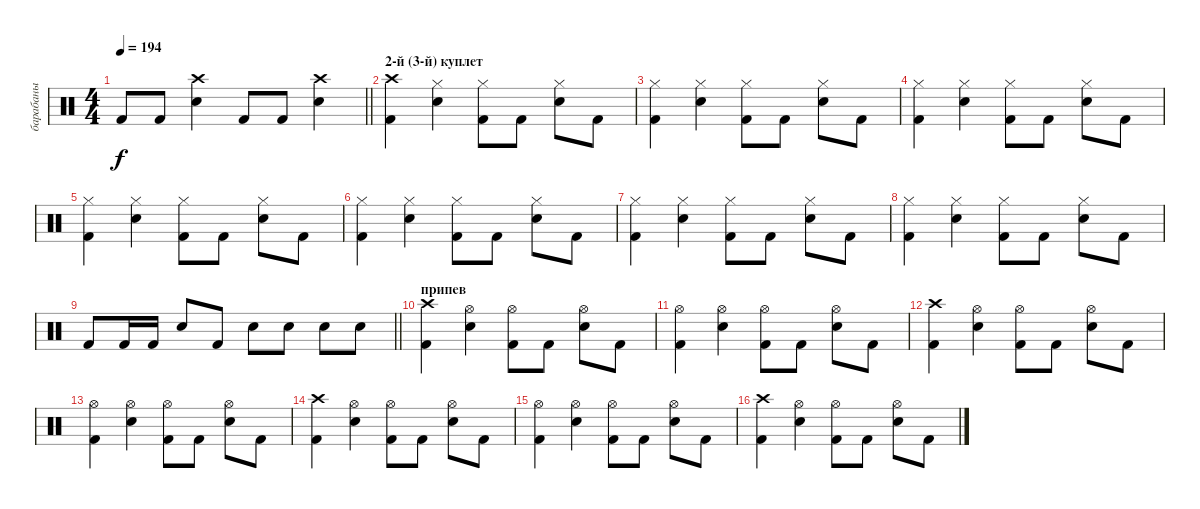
\track ("барабаны" "барабаны") {instrument percussion}
\staff {score}
\articulation defaults
\ts (4 4)
\tempo 194
\clef neutral
\barLineRight lightlight
\ks c "Kick (hit) 2".8{dy f} "Kick (hit) 2".8
("Crash high (hit)" "Snare (hit) 2").4 "Kick (hit) 2".8 "Kick (hit) 2".8 ("Crash high (hit)" "Snare (hit) 2").4 |
\section ("" "2-й (3-й) куплет")
("Crash high (hit)" "Kick (hit) 2").4 ("Hi-Hat (closed)" "Snare (hit) 2").4 ("Hi-Hat (closed)" "Kick (hit) 2").8 "Kick (hit) 2".8 ("Hi-Hat (closed)" "Snare (hit) 2").8 "Kick (hit) 2".8 |
("Hi-Hat (closed)" "Kick (hit) 2").4 ("Hi-Hat (closed)" "Snare (hit) 2").4 ("Hi-Hat (closed)" "Kick (hit) 2").8 "Kick (hit) 2".8 ("Hi-Hat (closed)" "Snare (hit) 2").8 "Kick (hit) 2".8 |
("Hi-Hat (closed)" "Kick (hit) 2").4 ("Hi-Hat (closed)" "Snare (hit) 2").4 ("Hi-Hat (closed)" "Kick (hit) 2").8 "Kick (hit) 2".8 ("Hi-Hat (closed)" "Snare (hit) 2").8 "Kick (hit) 2".8 |
("Hi-Hat (closed)" "Kick (hit) 2").4 ("Hi-Hat (closed)" "Snare (hit) 2").4 ("Hi-Hat (closed)" "Kick (hit) 2").8 "Kick (hit) 2".8 ("Hi-Hat (closed)" "Snare (hit) 2").8 "Kick (hit) 2".8 |
("Hi-Hat (closed)" "Kick (hit) 2").4 ("Hi-Hat (closed)" "Snare (hit) 2").4 ("Hi-Hat (closed)" "Kick (hit) 2").8 "Kick (hit) 2".8 ("Hi-Hat (closed)" "Snare (hit) 2").8 "Kick (hit) 2".8 |
("Hi-Hat (closed)" "Kick (hit) 2").4 ("Hi-Hat (closed)" "Snare (hit) 2").4 ("Hi-Hat (closed)" "Kick (hit) 2").8 "Kick (hit) 2".8 ("Hi-Hat (closed)" "Snare (hit) 2").8 "Kick (hit) 2".8 |
("Hi-Hat (closed)" "Kick (hit) 2").4 ("Hi-Hat (closed)" "Snare (hit) 2").4 ("Hi-Hat (closed)" "Kick (hit) 2").8 "Kick (hit) 2".8 ("Hi-Hat (closed)" "Snare (hit) 2").8 "Kick (hit) 2".8 |
\barLineRight lightlight "Kick (hit) 2".8 "Kick (hit) 2".16 "Kick (hit) 2".16 "Snare (hit) 2".8 "Kick (hit) 2".8 "Snare (hit) 2".8 "Snare (hit) 2".8 "Snare (hit) 2".8 "Snare (hit) 2".8
|
\section ("" "припев")
("Crash high (hit)" "Kick (hit) 2").4 ("Hi-Hat (open)" "Snare (hit) 2").4 ("Hi-Hat (open)" "Kick (hit) 2").8 "Kick (hit) 2".8 ("Hi-Hat (open)" "Snare (hit) 2").8 "Kick (hit) 2".8 |
("Hi-Hat (open)" "Kick (hit) 2").4 ("Hi-Hat (open)" "Snare (hit) 2").4 ("Hi-Hat (open)" "Kick (hit) 2").8 "Kick (hit) 2".8 ("Hi-Hat (open)" "Snare (hit) 2").8 "Kick (hit) 2".8 |
("Crash high (hit)" "Kick (hit) 2").4 ("Hi-Hat (open)" "Snare (hit) 2").4 ("Hi-Hat (open)" "Kick (hit) 2").8 "Kick (hit) 2".8 ("Hi-Hat (open)" "Snare (hit) 2").8 "Kick (hit) 2".8 |
("Hi-Hat (open)" "Kick (hit) 2").4 ("Hi-Hat (open)" "Snare (hit) 2").4 ("Hi-Hat (open)" "Kick (hit) 2").8 "Kick (hit) 2".8 ("Hi-Hat (open)" "Snare (hit) 2").8 "Kick (hit) 2".8 |
("Crash high (hit)" "Kick (hit) 2").4 ("Hi-Hat (open)" "Snare (hit) 2").4 ("Hi-Hat (open)" "Kick (hit) 2").8 "Kick (hit) 2".8 ("Hi-Hat (open)" "Snare (hit) 2").8 "Kick (hit) 2".8 |
("Hi-Hat (open)" "Kick (hit) 2").4 ("Hi-Hat (open)" "Snare (hit) 2").4 ("Hi-Hat (open)" "Kick (hit) 2").8 "Kick (hit) 2".8 ("Hi-Hat (open)" "Snare (hit) 2").8 "Kick (hit) 2".8 |
("Crash high (hit)" "Kick (hit) 2").4 ("Hi-Hat (open)" "Snare (hit) 2").4 ("Hi-Hat (open)" "Kick (hit) 2").8 "Kick (hit) 2".8 ("Hi-Hat (open)" "Snare (hit) 2").8 "Kick (hit) 2".8
